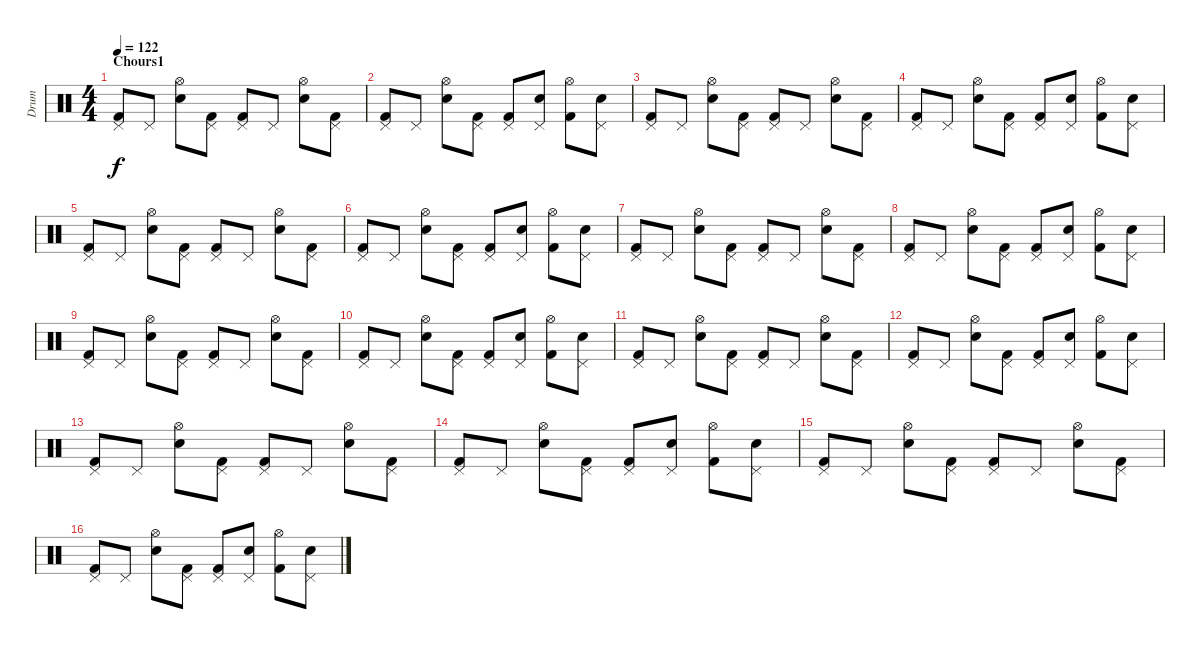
\track ("Drum" "Drum") {instrument percussion}
\staff {score}
\articulation defaults
\ts (4 4)
\section ("" "Chours1")
\tempo 122
\clef neutral
\ks c
("Pedal Hi-Hat (hit)" "Kick (hit) 2").8{dy f} "Pedal Hi-Hat (hit)".8 ("Hi-Hat (open)" "Electric Snare (hit)").8 ("Pedal Hi-Hat (hit)" "Kick (hit) 2").8 ("Pedal Hi-Hat (hit)" "Kick (hit) 2").8 "Pedal Hi-Hat (hit)".8 ("Hi-Hat (open)" "Electric Snare (hit)").8 ("Pedal Hi-Hat (hit)" "Kick (hit) 2").8 |
("Pedal Hi-Hat (hit)" "Kick (hit) 2").8 "Pedal Hi-Hat (hit)".8 ("Hi-Hat (open)" "Electric Snare (hit)").8 ("Pedal Hi-Hat (hit)" "Kick (hit) 2").8 ("Pedal Hi-Hat (hit)" "Kick (hit) 2").8 ("Pedal Hi-Hat (hit)" "Electric Snare (hit)").8 ("Hi-Hat (open)" "Kick (hit) 2").8 ("Pedal Hi-Hat (hit)" "Electric Snare (hit)").8 |
("Pedal Hi-Hat (hit)" "Kick (hit) 2").8 "Pedal Hi-Hat (hit)".8 ("Hi-Hat (open)" "Electric Snare (hit)").8 ("Pedal Hi-Hat (hit)" "Kick (hit) 2").8 ("Pedal Hi-Hat (hit)" "Kick (hit) 2").8 "Pedal Hi-Hat (hit)".8 ("Hi-Hat (open)" "Electric Snare (hit)").8 ("Pedal Hi-Hat (hit)" "Kick (hit) 2").8 |
("Pedal Hi-Hat (hit)" "Kick (hit) 2").8 "Pedal Hi-Hat (hit)".8 ("Hi-Hat (open)" "Electric Snare (hit)").8 ("Pedal Hi-Hat (hit)" "Kick (hit) 2").8 ("Pedal Hi-Hat (hit)" "Kick (hit) 2").8 ("Pedal Hi-Hat (hit)" "Electric Snare (hit)").8 ("Hi-Hat (open)" "Kick (hit) 2").8 ("Pedal Hi-Hat (hit)" "Electric Snare (hit)").8 |
("Pedal Hi-Hat (hit)" "Kick (hit) 2").8 "Pedal Hi-Hat (hit)".8 ("Hi-Hat (open)" "Electric Snare (hit)").8 ("Pedal Hi-Hat (hit)" "Kick (hit) 2").8 ("Pedal Hi-Hat (hit)" "Kick (hit) 2").8 "Pedal Hi-Hat (hit)".8 ("Hi-Hat (open)" "Electric Snare (hit)").8 ("Pedal Hi-Hat (hit)" "Kick (hit) 2").8 |
("Pedal Hi-Hat (hit)" "Kick (hit) 2").8 "Pedal Hi-Hat (hit)".8 ("Hi-Hat (open)" "Electric Snare (hit)").8 ("Pedal Hi-Hat (hit)" "Kick (hit) 2").8 ("Pedal Hi-Hat (hit)" "Kick (hit) 2").8 ("Pedal Hi-Hat (hit)" "Electric Snare (hit)").8 ("Hi-Hat (open)" "Kick (hit) 2").8 ("Pedal Hi-Hat (hit)" "Electric Snare (hit)").8 |
("Pedal Hi-Hat (hit)" "Kick (hit) 2").8 "Pedal Hi-Hat (hit)".8 ("Hi-Hat (open)" "Electric Snare (hit)").8 ("Pedal Hi-Hat (hit)" "Kick (hit) 2").8 ("Pedal Hi-Hat (hit)" "Kick (hit) 2").8 "Pedal Hi-Hat (hit)".8 ("Hi-Hat (open)" "Electric Snare (hit)").8 ("Pedal Hi-Hat (hit)" "Kick (hit) 2").8 |
("Pedal Hi-Hat (hit)" "Kick (hit) 2").8 "Pedal Hi-Hat (hit)".8 ("Hi-Hat (open)" "Electric Snare (hit)").8 ("Pedal Hi-Hat (hit)" "Kick (hit) 2").8 ("Pedal Hi-Hat (hit)" "Kick (hit) 2").8 ("Pedal Hi-Hat (hit)" "Electric Snare (hit)").8 ("Hi-Hat (open)" "Kick (hit) 2").8 ("Pedal Hi-Hat (hit)" "Electric Snare (hit)").8 |
("Pedal Hi-Hat (hit)" "Kick (hit) 2").8 "Pedal Hi-Hat (hit)".8 ("Hi-Hat (open)" "Electric Snare (hit)").8 ("Pedal Hi-Hat (hit)" "Kick (hit) 2").8 ("Pedal Hi-Hat (hit)" "Kick (hit) 2").8 "Pedal Hi-Hat (hit)".8 ("Hi-Hat (open)" "Electric Snare (hit)").8 ("Pedal Hi-Hat (hit)" "Kick (hit) 2").8 |
("Pedal Hi-Hat (hit)" "Kick (hit) 2").8 "Pedal Hi-Hat (hit)".8 ("Hi-Hat (open)" "Electric Snare (hit)").8 ("Pedal Hi-Hat (hit)" "Kick (hit) 2").8 ("Pedal Hi-Hat (hit)" "Kick (hit) 2").8 ("Pedal Hi-Hat (hit)" "Electric Snare (hit)").8 ("Hi-Hat (open)" "Kick (hit) 2").8 ("Pedal Hi-Hat (hit)" "Electric Snare (hit)").8 |
("Pedal Hi-Hat (hit)" "Kick (hit) 2").8 "Pedal Hi-Hat (hit)".8 ("Hi-Hat (open)" "Electric Snare (hit)").8 ("Pedal Hi-Hat (hit)" "Kick (hit) 2").8 ("Pedal Hi-Hat (hit)" "Kick (hit) 2").8 "Pedal Hi-Hat (hit)".8 ("Hi-Hat (open)" "Electric Snare (hit)").8 ("Pedal Hi-Hat (hit)" "Kick (hit) 2").8 |
("Pedal Hi-Hat (hit)" "Kick (hit) 2").8 "Pedal Hi-Hat (hit)".8 ("Hi-Hat (open)" "Electric Snare (hit)").8 ("Pedal Hi-Hat (hit)" "Kick (hit) 2").8 ("Pedal Hi-Hat (hit)" "Kick (hit) 2").8 ("Pedal Hi-Hat (hit)" "Electric Snare (hit)").8 ("Hi-Hat (open)" "Kick (hit) 2").8 ("Pedal Hi-Hat (hit)" "Electric Snare (hit)").8 |
("Pedal Hi-Hat (hit)" "Kick (hit) 2").8 "Pedal Hi-Hat (hit)".8 ("Hi-Hat (open)" "Electric Snare (hit)").8 ("Pedal Hi-Hat (hit)" "Kick (hit) 2").8 ("Pedal Hi-Hat (hit)" "Kick (hit) 2").8 "Pedal Hi-Hat (hit)".8 ("Hi-Hat (open)" "Electric Snare (hit)").8 ("Pedal Hi-Hat (hit)" "Kick (hit) 2").8 |
("Pedal Hi-Hat (hit)" "Kick (hit) 2").8 "Pedal Hi-Hat (hit)".8 ("Hi-Hat (open)" "Electric Snare (hit)").8 ("Pedal Hi-Hat (hit)" "Kick (hit) 2").8 ("Pedal Hi-Hat (hit)" "Kick (hit) 2").8 ("Pedal Hi-Hat (hit)" "Electric Snare (hit)").8 ("Hi-Hat (open)" "Kick (hit) 2").8 ("Pedal Hi-Hat (hit)" "Electric Snare (hit)").8 |
("Pedal Hi-Hat (hit)" "Kick (hit) 2").8 "Pedal Hi-Hat (hit)".8 ("Hi-Hat (open)" "Electric Snare (hit)").8 ("Pedal Hi-Hat (hit)" "Kick (hit) 2").8 ("Pedal Hi-Hat (hit)" "Kick (hit) 2").8 "Pedal Hi-Hat (hit)".8 ("Hi-Hat (open)" "Electric Snare (hit)").8 ("Pedal Hi-Hat (hit)" "Kick (hit) 2").8 |
("Pedal Hi-Hat (hit)" "Kick (hit) 2").8 "Pedal Hi-Hat (hit)".8 ("Hi-Hat (open)" "Electric Snare (hit)").8 ("Pedal Hi-Hat (hit)" "Kick (hit) 2").8 ("Pedal Hi-Hat (hit)" "Kick (hit) 2").8 ("Pedal Hi-Hat (hit)" "Electric Snare (hit)").8 ("Hi-Hat (open)" "Kick (hit) 2").8 ("Pedal Hi-Hat (hit)" "Electric Snare (hit)").8
